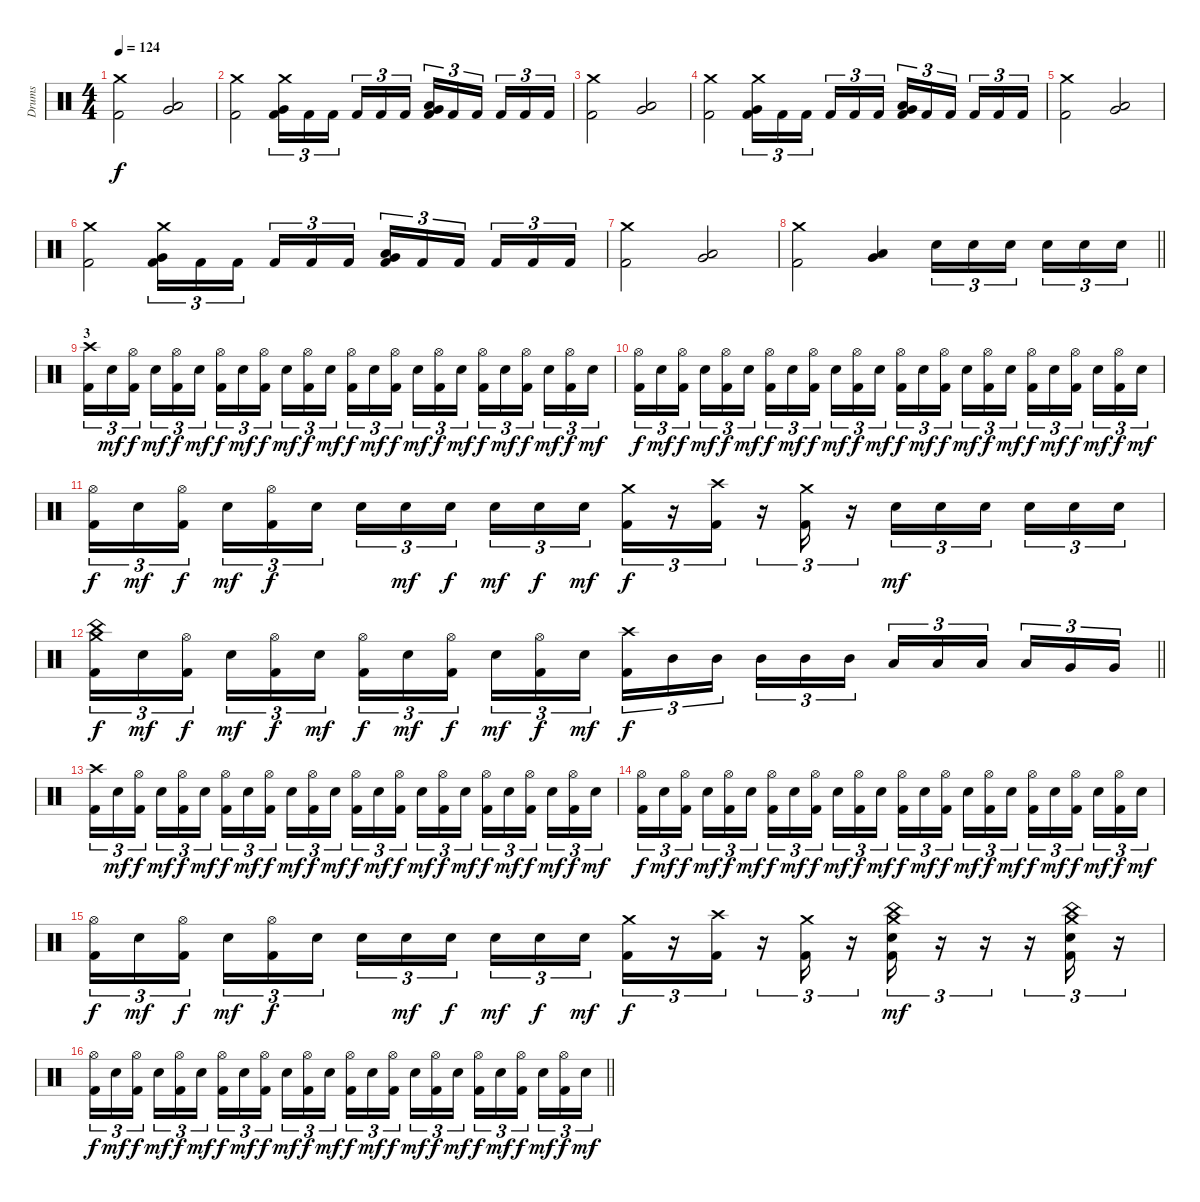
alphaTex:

\track ("Drums" "Drums") {instrument percussion}
\staff {score}
\articulation defaults
\ts (4 4)
\tempo 124
\clef neutral
\ks c
("Crash medium (hit)" "Kick (hit) 2").2{dy f} ("Low Floor Tom (hit)" "Very Low Tom (hit)").2 |
("Crash medium (hit)" "Kick (hit) 2").2 ("Crash medium (hit)" "Very Low Tom (hit)" "Kick (hit) 2").16{tu (3 2)} "Kick (hit) 2".16{tu (3 2)} "Kick (hit) 2".16{tu (3 2)} "Kick (hit) 2".16{tu (3 2)} "Kick (hit) 2".16{tu (3 2)} "Kick (hit) 2".16{tu (3 2)} ("Very Low Tom (hit)" "Low Tom (hit)" "Kick (hit) 2").16{tu (3 2)} "Kick (hit) 2".16{tu (3 2)} "Kick (hit) 2".16{tu (3 2)} "Kick (hit) 2".16{tu (3 2)} "Kick (hit) 2".16{tu (3 2)} "Kick (hit) 2".16{tu (3 2)} |
("Crash medium (hit)" "Kick (hit) 2").2 ("Low Floor Tom (hit)" "Very Low Tom (hit)").2 |
("Crash medium (hit)" "Kick (hit) 2").2 ("Crash medium (hit)" "Very Low Tom (hit)" "Kick (hit) 2").16{tu (3 2)} "Kick (hit) 2".16{tu (3 2)} "Kick (hit) 2".16{tu (3 2)} "Kick (hit) 2".16{tu (3 2)} "Kick (hit) 2".16{tu (3 2)} "Kick (hit) 2".16{tu (3 2)} ("Very Low Tom (hit)" "Low Tom (hit)" "Kick (hit) 2").16{tu (3 2)} "Kick (hit) 2".16{tu (3 2)} "Kick (hit) 2".16{tu (3 2)} "Kick (hit) 2".16{tu (3 2)} "Kick (hit) 2".16{tu (3 2)} "Kick (hit) 2".16{tu (3 2)} |
("Crash medium (hit)" "Kick (hit) 2").2 ("Low Floor Tom (hit)" "Very Low Tom (hit)").2 |
("Crash medium (hit)" "Kick (hit) 2").2 ("Crash medium (hit)" "Very Low Tom (hit)" "Kick (hit) 2").16{tu (3 2)} "Kick (hit) 2".16{tu (3 2)} "Kick (hit) 2".16{tu (3 2)} "Kick (hit) 2".16{tu (3 2)} "Kick (hit) 2".16{tu (3 2)} "Kick (hit) 2".16{tu (3 2)} ("Very Low Tom (hit)" "Low Tom (hit)" "Kick (hit) 2").16{tu (3 2)} "Kick (hit) 2".16{tu (3 2)} "Kick (hit) 2".16{tu (3 2)} "Kick (hit) 2".16{tu (3 2)} "Kick (hit) 2".16{tu (3 2)} "Kick (hit) 2".16{tu (3 2)} |
("Crash medium (hit)" "Kick (hit) 2").2 ("Low Floor Tom (hit)" "Very Low Tom (hit)").2 |
\barLineRight lightlight
("Crash medium (hit)" "Kick (hit) 2").2 ("Low Floor Tom (hit)" "Very Low Tom (hit)").4 "Electric Snare (hit)".16{tu (3 2)} "Electric Snare (hit)".16{tu (3 2)} "Electric Snare (hit)".16{tu (3 2)} "Electric Snare (hit)".16{tu (3 2)} "Electric Snare (hit)".16{tu (3 2)} "Electric Snare (hit)".16{tu (3 2)} |
\section ("" "3")
("Crash high (hit)" "Kick (hit) 2").16{tu (3 2)} "Electric Snare (hit)".16{tu (3 2) dy mf} ("Hi-Hat (open)" "Kick (hit) 2").16{tu (3 2) dy f} "Electric Snare (hit)".16{tu (3 2) dy mf} ("Hi-Hat (open)" "Kick (hit) 2").16{tu (3 2) dy f} "Electric Snare (hit)".16{tu (3 2) dy mf} ("Hi-Hat (open)" "Kick (hit) 2").16{tu (3 2) dy f} "Electric Snare (hit)".16{tu (3 2) dy mf} ("Hi-Hat (open)" "Kick (hit) 2").16{tu (3 2) dy f} "Electric Snare (hit)".16{tu (3 2) dy mf} ("Hi-Hat (open)" "Kick (hit) 2").16{tu (3 2) dy f} "Electric Snare (hit)".16{tu (3 2) dy mf} ("Hi-Hat (open)" "Kick (hit) 2").16{tu (3 2) dy f} "Electric Snare (hit)".16{tu (3 2) dy mf} ("Hi-Hat (open)" "Kick (hit) 2").16{tu (3 2) dy f} "Electric Snare (hit)".16{tu (3 2) dy mf} ("Hi-Hat (open)" "Kick (hit) 2").16{tu (3 2) dy f} "Electric Snare (hit)".16{tu (3 2) dy mf} ("Hi-Hat (open)" "Kick (hit) 2").16{tu (3 2) dy f} "Electric Snare (hit)".16{tu (3 2) dy mf} ("Hi-Hat (open)" "Kick (hit) 2").16{tu (3 2) dy f} "Electric Snare (hit)".16{tu (3 2) dy mf} ("Hi-Hat (open)" "Kick (hit) 2").16{tu (3 2) dy f} "Electric Snare (hit)".16{tu (3 2) dy mf} |
("Hi-Hat (open)" "Kick (hit) 2").16{tu (3 2) dy f} "Electric Snare (hit)".16{tu (3 2) dy mf} ("Hi-Hat (open)" "Kick (hit) 2").16{tu (3 2) dy f} "Electric Snare (hit)".16{tu (3 2) dy mf} ("Hi-Hat (open)" "Kick (hit) 2").16{tu (3 2) dy f} "Electric Snare (hit)".16{tu (3 2) dy mf} ("Hi-Hat (open)" "Kick (hit) 2").16{tu (3 2) dy f} "Electric Snare (hit)".16{tu (3 2) dy mf} ("Hi-Hat (open)" "Kick (hit) 2").16{tu (3 2) dy f} "Electric Snare (hit)".16{tu (3 2) dy mf} ("Hi-Hat (open)" "Kick (hit) 2").16{tu (3 2) dy f} "Electric Snare (hit)".16{tu (3 2) dy mf} ("Hi-Hat (open)" "Kick (hit) 2").16{tu (3 2) dy f} "Electric Snare (hit)".16{tu (3 2) dy mf} ("Hi-Hat (open)" "Kick (hit) 2").16{tu (3 2) dy f} "Electric Snare (hit)".16{tu (3 2) dy mf} ("Hi-Hat (open)" "Kick (hit) 2").16{tu (3 2) dy f} "Electric Snare (hit)".16{tu (3 2) dy mf} ("Hi-Hat (open)" "Kick (hit) 2").16{tu (3 2) dy f} "Electric Snare (hit)".16{tu (3 2) dy mf} ("Hi-Hat (open)" "Kick (hit) 2").16{tu (3 2) dy f} "Electric Snare (hit)".16{tu (3 2) dy mf} ("Hi-Hat (open)" "Kick (hit) 2").16{tu (3 2) dy f} "Electric Snare (hit)".16{tu (3 2) dy mf} |
("Hi-Hat (open)" "Kick (hit) 2").16{tu (3 2) dy f} "Electric Snare (hit)".16{tu (3 2) dy mf} ("Hi-Hat (open)" "Kick (hit) 2").16{tu (3 2) dy f} "Electric Snare (hit)".16{tu (3 2) dy mf} ("Hi-Hat (open)" "Kick (hit) 2").16{tu (3 2) dy f} "Electric Snare (hit)".16{tu (3 2)} "Electric Snare (hit)".16{tu (3 2)} "Electric Snare (hit)".16{tu (3 2) dy mf} "Electric Snare (hit)".16{tu (3 2) dy f} "Electric Snare (hit)".16{tu (3 2) dy mf} "Electric Snare (hit)".16{tu (3 2) dy f} "Electric Snare (hit)".16{tu (3 2) dy mf} ("Crash medium (hit)" "Kick (hit) 2").16{tu (3 2) dy f} r.16{tu (3 2)} ("Crash high (hit)" "Kick (hit) 2").16{tu (3 2)} r.16{tu (3 2)} ("Crash medium (hit)" "Kick (hit) 2").16{tu (3 2)} r.16{tu (3 2)} "Electric Snare (hit)".16{tu (3 2) dy mf} "Electric Snare (hit)".16{tu (3 2)} "Electric Snare (hit)".16{tu (3 2)} "Electric Snare (hit)".16{tu (3 2)} "Electric Snare (hit)".16{tu (3 2)} "Electric Snare (hit)".16{tu (3 2)} |
\barLineRight lightlight
("China (hit)" "Crash medium (hit)" "Kick (hit) 2").16{tu (3 2) dy f} "Electric Snare (hit)".16{tu (3 2) dy mf} ("Hi-Hat (open)" "Kick (hit) 2").16{tu (3 2) dy f} "Electric Snare (hit)".16{tu (3 2) dy mf} ("Hi-Hat (open)" "Kick (hit) 2").16{tu (3 2) dy f} "Electric Snare (hit)".16{tu (3 2) dy mf} ("Hi-Hat (open)" "Kick (hit) 2").16{tu (3 2) dy f} "Electric Snare (hit)".16{tu (3 2) dy mf} ("Hi-Hat (open)" "Kick (hit) 2").16{tu (3 2) dy f} "Electric Snare (hit)".16{tu (3 2) dy mf} ("Hi-Hat (open)" "Kick (hit) 2").16{tu (3 2) dy f} "Electric Snare (hit)".16{tu (3 2) dy mf} ("Crash high (hit)" "Kick (hit) 2").16{tu (3 2) dy f} "Mid Tom (hit)".16{tu (3 2)} "Mid Tom (hit)".16{tu (3 2)} "Mid Tom (hit)".16{tu (3 2)} "Mid Tom (hit)".16{tu (3 2)} "Mid Tom (hit)".16{tu (3 2)} "Low Tom (hit)".16{tu (3 2)} "Low Tom (hit)".16{tu (3 2)} "Low Tom (hit)".16{tu (3 2)} "Low Tom (hit)".16{tu (3 2)} "Very Low Tom (hit)".16{tu (3 2)} "Very Low Tom (hit)".16{tu (3 2)} |
("Crash high (hit)" "Kick (hit) 2").16{tu (3 2)} "Electric Snare (hit)".16{tu (3 2) dy mf} ("Hi-Hat (open)" "Kick (hit) 2").16{tu (3 2) dy f} "Electric Snare (hit)".16{tu (3 2) dy mf} ("Hi-Hat (open)" "Kick (hit) 2").16{tu (3 2) dy f} "Electric Snare (hit)".16{tu (3 2) dy mf} ("Hi-Hat (open)" "Kick (hit) 2").16{tu (3 2) dy f} "Electric Snare (hit)".16{tu (3 2) dy mf} ("Hi-Hat (open)" "Kick (hit) 2").16{tu (3 2) dy f} "Electric Snare (hit)".16{tu (3 2) dy mf} ("Hi-Hat (open)" "Kick (hit) 2").16{tu (3 2) dy f} "Electric Snare (hit)".16{tu (3 2) dy mf} ("Hi-Hat (open)" "Kick (hit) 2").16{tu (3 2) dy f} "Electric Snare (hit)".16{tu (3 2) dy mf} ("Hi-Hat (open)" "Kick (hit) 2").16{tu (3 2) dy f} "Electric Snare (hit)".16{tu (3 2) dy mf} ("Hi-Hat (open)" "Kick (hit) 2").16{tu (3 2) dy f} "Electric Snare (hit)".16{tu (3 2) dy mf} ("Hi-Hat (open)" "Kick (hit) 2").16{tu (3 2) dy f} "Electric Snare (hit)".16{tu (3 2) dy mf} ("Hi-Hat (open)" "Kick (hit) 2").16{tu (3 2) dy f} "Electric Snare (hit)".16{tu (3 2) dy mf} ("Hi-Hat (open)" "Kick (hit) 2").16{tu (3 2) dy f} "Electric Snare (hit)".16{tu (3 2) dy mf} |
("Hi-Hat (open)" "Kick (hit) 2").16{tu (3 2) dy f} "Electric Snare (hit)".16{tu (3 2) dy mf} ("Hi-Hat (open)" "Kick (hit) 2").16{tu (3 2) dy f} "Electric Snare (hit)".16{tu (3 2) dy mf} ("Hi-Hat (open)" "Kick (hit) 2").16{tu (3 2) dy f} "Electric Snare (hit)".16{tu (3 2) dy mf} ("Hi-Hat (open)" "Kick (hit) 2").16{tu (3 2) dy f} "Electric Snare (hit)".16{tu (3 2) dy mf} ("Hi-Hat (open)" "Kick (hit) 2").16{tu (3 2) dy f} "Electric Snare (hit)".16{tu (3 2) dy mf} ("Hi-Hat (open)" "Kick (hit) 2").16{tu (3 2) dy f} "Electric Snare (hit)".16{tu (3 2) dy mf} ("Hi-Hat (open)" "Kick (hit) 2").16{tu (3 2) dy f} "Electric Snare (hit)".16{tu (3 2) dy mf} ("Hi-Hat (open)" "Kick (hit) 2").16{tu (3 2) dy f} "Electric Snare (hit)".16{tu (3 2) dy mf} ("Hi-Hat (open)" "Kick (hit) 2").16{tu (3 2) dy f} "Electric Snare (hit)".16{tu (3 2) dy mf} ("Hi-Hat (open)" "Kick (hit) 2").16{tu (3 2) dy f} "Electric Snare (hit)".16{tu (3 2) dy mf} ("Hi-Hat (open)" "Kick (hit) 2").16{tu (3 2) dy f} "Electric Snare (hit)".16{tu (3 2) dy mf} ("Hi-Hat (open)" "Kick (hit) 2").16{tu (3 2) dy f} "Electric Snare (hit)".16{tu (3 2) dy mf} |
("Hi-Hat (open)" "Kick (hit) 2").16{tu (3 2) dy f} "Electric Snare (hit)".16{tu (3 2) dy mf} ("Hi-Hat (open)" "Kick (hit) 2").16{tu (3 2) dy f} "Electric Snare (hit)".16{tu (3 2) dy mf} ("Hi-Hat (open)" "Kick (hit) 2").16{tu (3 2) dy f} "Electric Snare (hit)".16{tu (3 2)} "Electric Snare (hit)".16{tu (3 2)} "Electric Snare (hit)".16{tu (3 2) dy mf} "Electric Snare (hit)".16{tu (3 2) dy f} "Electric Snare (hit)".16{tu (3 2) dy mf} "Electric Snare (hit)".16{tu (3 2) dy f} "Electric Snare (hit)".16{tu (3 2) dy mf} ("Crash medium (hit)" "Kick (hit) 2").16{tu (3 2) dy f} r.16{tu (3 2)} ("Crash high (hit)" "Kick (hit) 2").16{tu (3 2)} r.16{tu (3 2)} ("Crash medium (hit)" "Kick (hit) 2").16{tu (3 2)} r.16{tu (3 2)} ("China (hit)" "Crash medium (hit)" "Electric Snare (hit)" "Kick (hit) 2").16{tu (3 2) dy mf} r.16{tu (3 2)} r.16{tu (3 2)} r.16{tu (3 2)} ("China (hit)" "Crash medium (hit)" "Electric Snare (hit)" "Kick (hit) 2").16{tu (3 2)} r.16{tu (3 2)} |
\barLineRight lightlight
("Hi-Hat (open)" "Kick (hit) 2").16{tu (3 2) dy f} "Electric Snare (hit)".16{tu (3 2) dy mf} ("Hi-Hat (open)" "Kick (hit) 2").16{tu (3 2) dy f} "Electric Snare (hit)".16{tu (3 2) dy mf} ("Hi-Hat (open)" "Kick (hit) 2").16{tu (3 2) dy f} "Electric Snare (hit)".16{tu (3 2) dy mf} ("Hi-Hat (open)" "Kick (hit) 2").16{tu (3 2) dy f} "Electric Snare (hit)".16{tu (3 2) dy mf} ("Hi-Hat (open)" "Kick (hit) 2").16{tu (3 2) dy f} "Electric Snare (hit)".16{tu (3 2) dy mf} ("Hi-Hat (open)" "Kick (hit) 2").16{tu (3 2) dy f} "Electric Snare (hit)".16{tu (3 2) dy mf} ("Hi-Hat (open)" "Kick (hit) 2").16{tu (3 2) dy f} "Electric Snare (hit)".16{tu (3 2) dy mf} ("Hi-Hat (open)" "Kick (hit) 2").16{tu (3 2) dy f} "Electric Snare (hit)".16{tu (3 2) dy mf} ("Hi-Hat (open)" "Kick (hit) 2").16{tu (3 2) dy f} "Electric Snare (hit)".16{tu (3 2) dy mf} ("Hi-Hat (open)" "Kick (hit) 2").16{tu (3 2) dy f} "Electric Snare (hit)".16{tu (3 2) dy mf} ("Hi-Hat (open)" "Kick (hit) 2").16{tu (3 2) dy f} "Electric Snare (hit)".16{tu (3 2) dy mf} ("Hi-Hat (open)" "Kick (hit) 2").16{tu (3 2) dy f} "Electric Snare (hit)".16{tu (3 2) dy mf}
